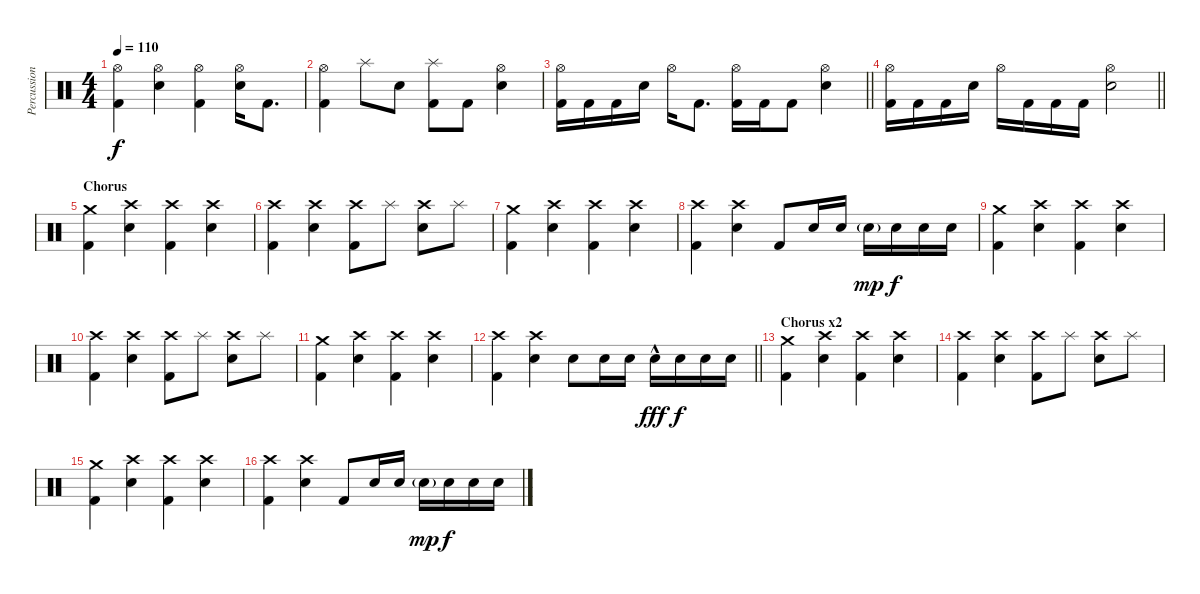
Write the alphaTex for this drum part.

\track ("Percussions" "Percussion") {instrument percussion}
\staff {score}
\articulation defaults
\ts (4 4)
\tempo 110
\clef neutral
\ks c
("Hi-Hat (open)" "Kick (hit) 2").4{dy f} ("Hi-Hat (open)" "Electric Snare (hit)").4 ("Hi-Hat (open)" "Kick (hit) 2").4 ("Hi-Hat (open)" "Electric Snare (hit)").16 "Kick (hit) 2".8{d} |
("Hi-Hat (open)" "Kick (hit) 2").4 "Splash (hit)".8 "Electric Snare (hit)".8 ("Splash (hit)" "Kick (hit) 2").8 "Kick (hit) 2".8 ("Hi-Hat (open)" "Electric Snare (hit)").4 |
\barLineRight lightlight
("Hi-Hat (open)" "Kick (hit) 2").16 "Kick (hit) 2".16 "Kick (hit) 2".16 "Electric Snare (hit)".16 "Hi-Hat (open)".16 "Kick (hit) 2".8{d} ("Hi-Hat (open)" "Kick (hit) 2").16 "Kick (hit) 2".16 "Kick (hit) 2".8 ("Hi-Hat (open)" "Electric Snare (hit)").4 |
\barLineRight lightlight
("Hi-Hat (open)" "Kick (hit) 2").16 "Kick (hit) 2".16 "Kick (hit) 2".16 "Electric Snare (hit)".16 "Hi-Hat (open)".16 "Kick (hit) 2".16 "Kick (hit) 2".16 "Kick (hit) 2".16 ("Hi-Hat (open)" "Electric Snare (hit)").2 |
\section ("" "Chorus")
("Crash medium (hit)" "Kick (hit) 2").4 ("Crash high (hit)" "Electric Snare (hit)").4 ("Crash high (hit)" "Kick (hit) 2").4 ("Crash high (hit)" "Electric Snare (hit)").4 |
("Crash high (hit)" "Kick (hit) 2").4 ("Crash high (hit)" "Electric Snare (hit)").4 ("Crash high (hit)" "Kick (hit) 2").8 "Splash (hit)".8 ("Crash high (hit)" "Electric Snare (hit)").8 "Splash (hit)".8 |
("Crash medium (hit)" "Kick (hit) 2").4 ("Crash high (hit)" "Electric Snare (hit)").4 ("Crash high (hit)" "Kick (hit) 2").4 ("Crash high (hit)" "Electric Snare (hit)").4 |
("Crash high (hit)" "Kick (hit) 2").4 ("Crash high (hit)" "Electric Snare (hit)").4 "Kick (hit) 2".8 "Electric Snare (hit)".16 "Electric Snare (hit)".16 "Electric Snare (hit)"{g}.16{dy mp} "Electric Snare (hit)".16{dy f} "Electric Snare (hit)".16 "Electric Snare (hit)".16 |
("Crash medium (hit)" "Kick (hit) 2").4 ("Crash high (hit)" "Electric Snare (hit)").4 ("Crash high (hit)" "Kick (hit) 2").4 ("Crash high (hit)" "Electric Snare (hit)").4 |
("Crash high (hit)" "Kick (hit) 2").4 ("Crash high (hit)" "Electric Snare (hit)").4 ("Crash high (hit)" "Kick (hit) 2").8 "Splash (hit)".8 ("Crash high (hit)" "Electric Snare (hit)").8 "Splash (hit)".8 |
("Crash medium (hit)" "Kick (hit) 2").4 ("Crash high (hit)" "Electric Snare (hit)").4 ("Crash high (hit)" "Kick (hit) 2").4 ("Crash high (hit)" "Electric Snare (hit)").4 |
\barLineRight lightlight
("Crash high (hit)" "Kick (hit) 2").4 ("Crash high (hit)" "Electric Snare (hit)").4 "Electric Snare (hit)".8 "Electric Snare (hit)".16 "Electric Snare (hit)".16 "Electric Snare (hit)"{hac}.16{dy fff} "Electric Snare (hit)".16{dy f} "Electric Snare (hit)".16 "Electric Snare (hit)".16 |
\section ("" "Chorus x2")
("Crash medium (hit)" "Kick (hit) 2").4 ("Crash high (hit)" "Electric Snare (hit)").4 ("Crash high (hit)" "Kick (hit) 2").4 ("Crash high (hit)" "Electric Snare (hit)").4 |
("Crash high (hit)" "Kick (hit) 2").4 ("Crash high (hit)" "Electric Snare (hit)").4 ("Crash high (hit)" "Kick (hit) 2").8 "Splash (hit)".8 ("Crash high (hit)" "Electric Snare (hit)").8 "Splash (hit)".8 |
("Crash medium (hit)" "Kick (hit) 2").4 ("Crash high (hit)" "Electric Snare (hit)").4 ("Crash high (hit)" "Kick (hit) 2").4 ("Crash high (hit)" "Electric Snare (hit)").4 |
("Crash high (hit)" "Kick (hit) 2").4 ("Crash high (hit)" "Electric Snare (hit)").4 "Kick (hit) 2".8 "Electric Snare (hit)".16 "Electric Snare (hit)".16 "Electric Snare (hit)"{g}.16{dy mp} "Electric Snare (hit)".16{dy f} "Electric Snare (hit)".16 "Electric Snare (hit)".16
